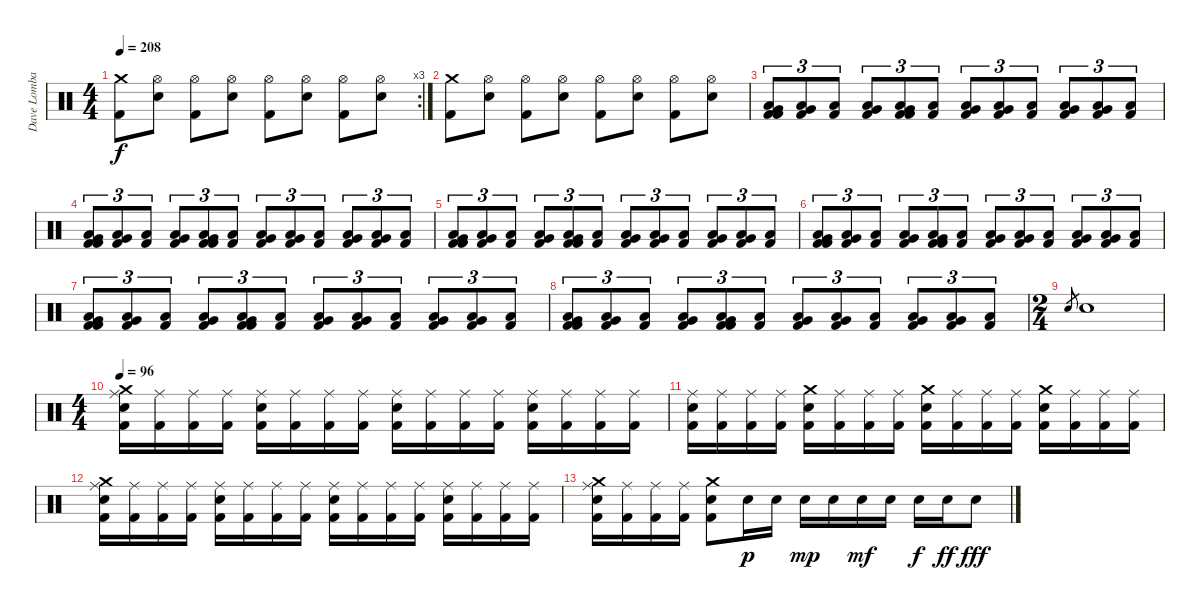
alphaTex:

\track ("Dave Lombardo" "Dave Lomba") {instrument percussion}
\staff {score}
\articulation defaults
\rc 3
\ts (4 4)
\tempo 208
\clef neutral
\ks c
("Crash medium (hit)" "Kick (hit) 2").8{dy f} ("Electric Snare (hit)" "Hi-Hat (open)").8 ("Kick (hit) 2" "Hi-Hat (open)").8 ("Electric Snare (hit)" "Hi-Hat (open)").8 ("Kick (hit) 2" "Hi-Hat (open)").8 ("Electric Snare (hit)" "Hi-Hat (open)").8 ("Kick (hit) 2" "Hi-Hat (open)").8 ("Electric Snare (hit)" "Hi-Hat (open)").8 |
("Crash medium (hit)" "Kick (hit) 2").8 ("Electric Snare (hit)" "Hi-Hat (open)").8 ("Kick (hit) 2" "Hi-Hat (open)").8 ("Electric Snare (hit)" "Hi-Hat (open)").8 ("Kick (hit) 2" "Hi-Hat (open)").8 ("Electric Snare (hit)" "Hi-Hat (open)").8 ("Kick (hit) 2" "Hi-Hat (open)").8 ("Electric Snare (hit)" "Hi-Hat (open)").8 |
("Kick (hit) 2" "Very Low Tom (hit)" "Kick (hit) 2" "Low Floor Tom (hit)").8{tu (3 2)} ("Kick (hit) 2" "Very Low Tom (hit)" "Low Floor Tom (hit)").8{tu (3 2)} ("Kick (hit) 2" "Low Floor Tom (hit)").8{tu (3 2)} ("Kick (hit) 2" "Very Low Tom (hit)" "Low Floor Tom (hit)").8{tu (3 2)} ("Kick (hit) 2" "Very Low Tom (hit)" "Kick (hit) 2" "Low Floor Tom (hit)").8{tu (3 2)} ("Kick (hit) 2" "Low Floor Tom (hit)").8{tu (3 2)} ("Kick (hit) 2" "Very Low Tom (hit)" "Low Floor Tom (hit)").8{tu (3 2)} ("Kick (hit) 2" "Very Low Tom (hit)" "Low Floor Tom (hit)").8{tu (3 2)} ("Kick (hit) 2" "Low Floor Tom (hit)").8{tu (3 2)} ("Kick (hit) 2" "Very Low Tom (hit)" "Low Floor Tom (hit)").8{tu (3 2)} ("Kick (hit) 2" "Very Low Tom (hit)" "Low Floor Tom (hit)").8{tu (3 2)} ("Kick (hit) 2" "Low Floor Tom (hit)").8{tu (3 2)} |
("Kick (hit) 2" "Very Low Tom (hit)" "Kick (hit) 2" "Low Floor Tom (hit)").8{tu (3 2)} ("Kick (hit) 2" "Very Low Tom (hit)" "Low Floor Tom (hit)").8{tu (3 2)} ("Kick (hit) 2" "Low Floor Tom (hit)").8{tu (3 2)} ("Kick (hit) 2" "Very Low Tom (hit)" "Low Floor Tom (hit)").8{tu (3 2)} ("Kick (hit) 2" "Very Low Tom (hit)" "Kick (hit) 2" "Low Floor Tom (hit)").8{tu (3 2)} ("Kick (hit) 2" "Low Floor Tom (hit)").8{tu (3 2)} ("Kick (hit) 2" "Very Low Tom (hit)" "Low Floor Tom (hit)").8{tu (3 2)} ("Kick (hit) 2" "Very Low Tom (hit)" "Low Floor Tom (hit)").8{tu (3 2)} ("Kick (hit) 2" "Low Floor Tom (hit)").8{tu (3 2)} ("Kick (hit) 2" "Very Low Tom (hit)" "Low Floor Tom (hit)").8{tu (3 2)} ("Kick (hit) 2" "Very Low Tom (hit)" "Low Floor Tom (hit)").8{tu (3 2)} ("Kick (hit) 2" "Low Floor Tom (hit)").8{tu (3 2)} |
("Kick (hit) 2" "Very Low Tom (hit)" "Kick (hit) 2" "Low Floor Tom (hit)").8{tu (3 2)} ("Kick (hit) 2" "Very Low Tom (hit)" "Low Floor Tom (hit)").8{tu (3 2)} ("Kick (hit) 2" "Low Floor Tom (hit)").8{tu (3 2)} ("Kick (hit) 2" "Very Low Tom (hit)" "Low Floor Tom (hit)").8{tu (3 2)} ("Kick (hit) 2" "Very Low Tom (hit)" "Kick (hit) 2" "Low Floor Tom (hit)").8{tu (3 2)} ("Kick (hit) 2" "Low Floor Tom (hit)").8{tu (3 2)} ("Kick (hit) 2" "Very Low Tom (hit)" "Low Floor Tom (hit)").8{tu (3 2)} ("Kick (hit) 2" "Very Low Tom (hit)" "Low Floor Tom (hit)").8{tu (3 2)} ("Kick (hit) 2" "Low Floor Tom (hit)").8{tu (3 2)} ("Kick (hit) 2" "Very Low Tom (hit)" "Low Floor Tom (hit)").8{tu (3 2)} ("Kick (hit) 2" "Very Low Tom (hit)" "Low Floor Tom (hit)").8{tu (3 2)} ("Kick (hit) 2" "Low Floor Tom (hit)").8{tu (3 2)} |
("Kick (hit) 2" "Very Low Tom (hit)" "Kick (hit) 2" "Low Floor Tom (hit)").8{tu (3 2)} ("Kick (hit) 2" "Very Low Tom (hit)" "Low Floor Tom (hit)").8{tu (3 2)} ("Kick (hit) 2" "Low Floor Tom (hit)").8{tu (3 2)} ("Kick (hit) 2" "Very Low Tom (hit)" "Low Floor Tom (hit)").8{tu (3 2)} ("Kick (hit) 2" "Very Low Tom (hit)" "Kick (hit) 2" "Low Floor Tom (hit)").8{tu (3 2)} ("Kick (hit) 2" "Low Floor Tom (hit)").8{tu (3 2)} ("Kick (hit) 2" "Very Low Tom (hit)" "Low Floor Tom (hit)").8{tu (3 2)} ("Kick (hit) 2" "Very Low Tom (hit)" "Low Floor Tom (hit)").8{tu (3 2)} ("Kick (hit) 2" "Low Floor Tom (hit)").8{tu (3 2)} ("Kick (hit) 2" "Very Low Tom (hit)" "Low Floor Tom (hit)").8{tu (3 2)} ("Kick (hit) 2" "Very Low Tom (hit)" "Low Floor Tom (hit)").8{tu (3 2)} ("Kick (hit) 2" "Low Floor Tom (hit)").8{tu (3 2)} |
("Kick (hit) 2" "Very Low Tom (hit)" "Kick (hit) 2" "Low Floor Tom (hit)").8{tu (3 2)} ("Kick (hit) 2" "Very Low Tom (hit)" "Low Floor Tom (hit)").8{tu (3 2)} ("Kick (hit) 2" "Low Floor Tom (hit)").8{tu (3 2)} ("Kick (hit) 2" "Very Low Tom (hit)" "Low Floor Tom (hit)").8{tu (3 2)} ("Kick (hit) 2" "Very Low Tom (hit)" "Kick (hit) 2" "Low Floor Tom (hit)").8{tu (3 2)} ("Kick (hit) 2" "Low Floor Tom (hit)").8{tu (3 2)} ("Kick (hit) 2" "Very Low Tom (hit)" "Low Floor Tom (hit)").8{tu (3 2)} ("Kick (hit) 2" "Very Low Tom (hit)" "Low Floor Tom (hit)").8{tu (3 2)} ("Kick (hit) 2" "Low Floor Tom (hit)").8{tu (3 2)} ("Kick (hit) 2" "Very Low Tom (hit)" "Low Floor Tom (hit)").8{tu (3 2)} ("Kick (hit) 2" "Very Low Tom (hit)" "Low Floor Tom (hit)").8{tu (3 2)} ("Kick (hit) 2" "Low Floor Tom (hit)").8{tu (3 2)} |
("Kick (hit) 2" "Very Low Tom (hit)" "Kick (hit) 2" "Low Floor Tom (hit)").8{tu (3 2)} ("Kick (hit) 2" "Very Low Tom (hit)" "Low Floor Tom (hit)").8{tu (3 2)} ("Kick (hit) 2" "Low Floor Tom (hit)").8{tu (3 2)} ("Kick (hit) 2" "Very Low Tom (hit)" "Low Floor Tom (hit)").8{tu (3 2)} ("Kick (hit) 2" "Very Low Tom (hit)" "Kick (hit) 2" "Low Floor Tom (hit)").8{tu (3 2)} ("Kick (hit) 2" "Low Floor Tom (hit)").8{tu (3 2)} ("Kick (hit) 2" "Very Low Tom (hit)" "Low Floor Tom (hit)").8{tu (3 2)} ("Kick (hit) 2" "Very Low Tom (hit)" "Low Floor Tom (hit)").8{tu (3 2)} ("Kick (hit) 2" "Low Floor Tom (hit)").8{tu (3 2)} ("Kick (hit) 2" "Very Low Tom (hit)" "Low Floor Tom (hit)").8{tu (3 2)} ("Kick (hit) 2" "Very Low Tom (hit)" "Low Floor Tom (hit)").8{tu (3 2)} ("Kick (hit) 2" "Low Floor Tom (hit)").8{tu (3 2)} |
\ts (2 4)
"Electric Snare (hit)".8{gr} "Electric Snare (hit)".1 |
\ts (4 4)
\tempo 96
("Crash medium (hit)" "Electric Snare (hit)" "Ride (middle)" "Kick (hit) 2").16 ("Ride (middle)" "Kick (hit) 2").16 ("Ride (middle)" "Kick (hit) 2").16 ("Ride (middle)" "Kick (hit) 2").16 ("Electric Snare (hit)" "Ride (middle)" "Kick (hit) 2").16 ("Ride (middle)" "Kick (hit) 2").16 ("Ride (middle)" "Kick (hit) 2").16 ("Ride (middle)" "Kick (hit) 2").16 ("Electric Snare (hit)" "Ride (middle)" "Kick (hit) 2").16 ("Ride (middle)" "Kick (hit) 2").16 ("Ride (middle)" "Kick (hit) 2").16 ("Ride (middle)" "Kick (hit) 2").16 ("Electric Snare (hit)" "Ride (middle)" "Kick (hit) 2").16 ("Ride (middle)" "Kick (hit) 2").16 ("Ride (middle)" "Kick (hit) 2").16 ("Ride (middle)" "Kick (hit) 2").16 |
("Electric Snare (hit)" "Ride (middle)" "Kick (hit) 2").16 ("Ride (middle)" "Kick (hit) 2").16 ("Ride (middle)" "Kick (hit) 2").16 ("Ride (middle)" "Kick (hit) 2").16 ("Electric Snare (hit)" "Crash medium (hit)" "Kick (hit) 2").16 ("Ride (middle)" "Kick (hit) 2").16 ("Ride (middle)" "Kick (hit) 2").16 ("Ride (middle)" "Kick (hit) 2").16 ("Electric Snare (hit)" "Crash medium (hit)" "Kick (hit) 2").16 ("Ride (middle)" "Kick (hit) 2").16 ("Ride (middle)" "Kick (hit) 2").16 ("Ride (middle)" "Kick (hit) 2").16 ("Electric Snare (hit)" "Crash medium (hit)" "Kick (hit) 2").16 ("Ride (middle)" "Kick (hit) 2").16 ("Ride (middle)" "Kick (hit) 2").16 ("Ride (middle)" "Kick (hit) 2").16 |
("Crash medium (hit)" "Electric Snare (hit)" "Ride (middle)" "Kick (hit) 2").16 ("Ride (middle)" "Kick (hit) 2").16 ("Ride (middle)" "Kick (hit) 2").16 ("Ride (middle)" "Kick (hit) 2").16 ("Electric Snare (hit)" "Ride (middle)" "Kick (hit) 2").16 ("Ride (middle)" "Kick (hit) 2").16 ("Ride (middle)" "Kick (hit) 2").16 ("Ride (middle)" "Kick (hit) 2").16 ("Electric Snare (hit)" "Ride (middle)" "Kick (hit) 2").16 ("Ride (middle)" "Kick (hit) 2").16 ("Ride (middle)" "Kick (hit) 2").16 ("Ride (middle)" "Kick (hit) 2").16 ("Electric Snare (hit)" "Ride (middle)" "Kick (hit) 2").16 ("Ride (middle)" "Kick (hit) 2").16 ("Ride (middle)" "Kick (hit) 2").16 ("Ride (middle)" "Kick (hit) 2").16 |
("Crash medium (hit)" "Electric Snare (hit)" "Ride (middle)" "Kick (hit) 2").16 ("Ride (middle)" "Kick (hit) 2").16 ("Ride (middle)" "Kick (hit) 2").16 ("Ride (middle)" "Kick (hit) 2").16 ("Electric Snare (hit)" "Crash medium (hit)" "Kick (hit) 2").8 "Electric Snare (hit)".16{dy p} "Electric Snare (hit)".16 "Electric Snare (hit)".16{dy mp} "Electric Snare (hit)".16 "Electric Snare (hit)".16{dy mf} "Electric Snare (hit)".16 "Electric Snare (hit)".16{dy f} "Electric Snare (hit)".16{dy ff} "Electric Snare (hit)".8{dy fff}
